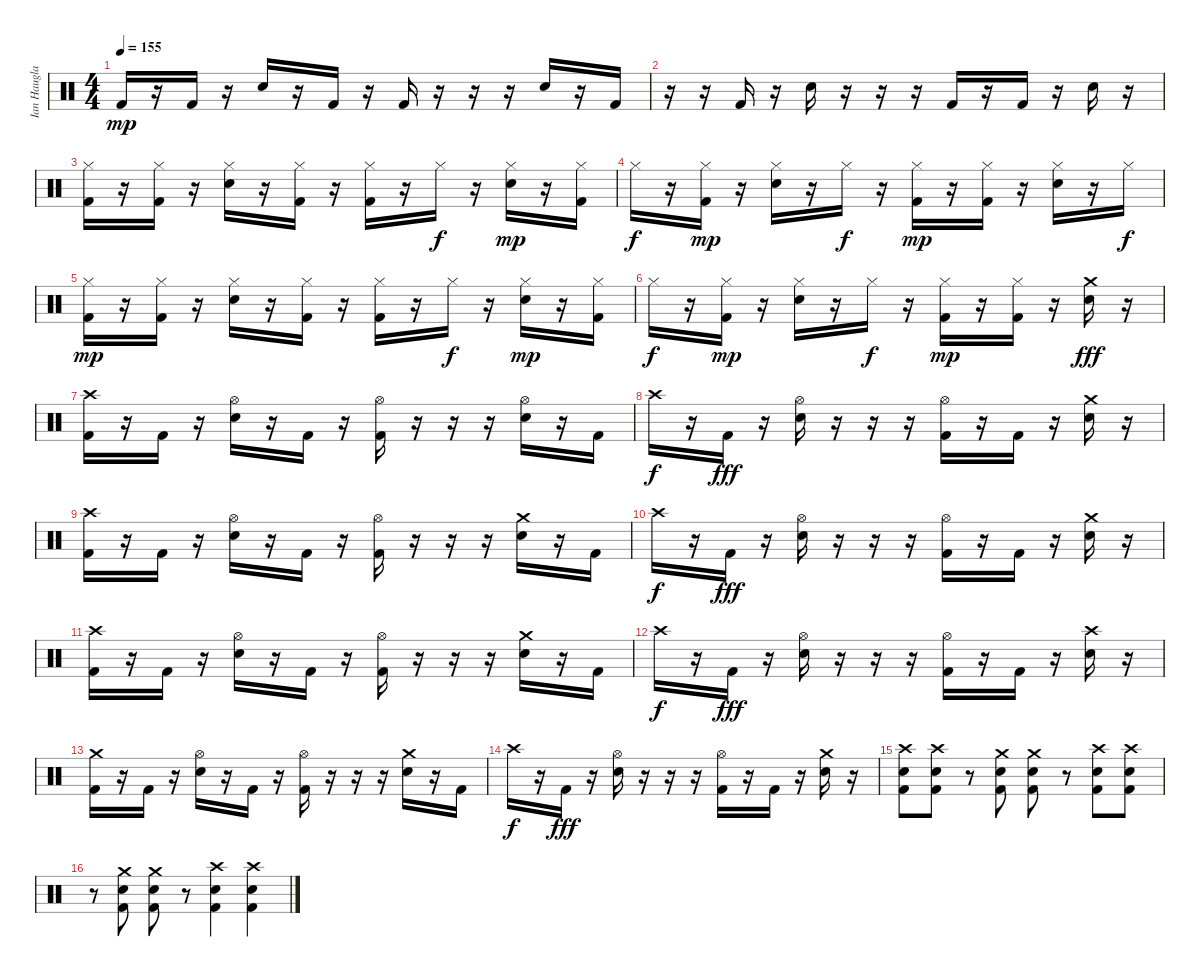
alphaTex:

\track ("Ian Haugland" "Ian Haugla") {instrument percussion}
\staff {score}
\articulation defaults
\ts (4 4)
\tempo 155
\clef neutral
\ks c "Kick (hit) 2".16{dy mp}
r.16 "Kick (hit) 2".16 r.16 "Electric Snare (hit)".16 r.16 "Kick (hit) 2".16 r.16 "Kick (hit) 2".16 r.16 r.16 r.16 "Electric Snare (hit)".16 r.16 "Kick (hit) 2".16 |
r.16 r.16 "Kick (hit) 2".16 r.16 "Electric Snare (hit)".16 r.16 r.16 r.16 "Kick (hit) 2".16 r.16 "Kick (hit) 2".16 r.16 "Electric Snare (hit)".16 r.16 |
("Hi-Hat (closed)" "Kick (hit) 2").16 r.16 ("Hi-Hat (closed)" "Kick (hit) 2").16 r.16 ("Hi-Hat (closed)" "Electric Snare (hit)").16 r.16 ("Hi-Hat (closed)" "Kick (hit) 2").16 r.16 ("Hi-Hat (closed)" "Kick (hit) 2").16 r.16 "Hi-Hat (closed)".16{dy f} r.16 ("Hi-Hat (closed)" "Electric Snare (hit)").16{dy mp} r.16 ("Hi-Hat (closed)" "Kick (hit) 2").16 |
"Hi-Hat (closed)".16{dy f} r.16 ("Hi-Hat (closed)" "Kick (hit) 2").16{dy mp} r.16 ("Hi-Hat (closed)" "Electric Snare (hit)").16 r.16 "Hi-Hat (closed)".16{dy f} r.16 ("Hi-Hat (closed)" "Kick (hit) 2").16{dy mp} r.16 ("Hi-Hat (closed)" "Kick (hit) 2").16 r.16 ("Hi-Hat (closed)" "Electric Snare (hit)").16 r.16 "Hi-Hat (closed)".16{dy f} |
("Hi-Hat (closed)" "Kick (hit) 2").16{dy mp} r.16 ("Hi-Hat (closed)" "Kick (hit) 2").16 r.16 ("Hi-Hat (closed)" "Electric Snare (hit)").16 r.16 ("Hi-Hat (closed)" "Kick (hit) 2").16 r.16 ("Hi-Hat (closed)" "Kick (hit) 2").16 r.16 "Hi-Hat (closed)".16{dy f} r.16 ("Hi-Hat (closed)" "Electric Snare (hit)").16{dy mp} r.16 ("Hi-Hat (closed)" "Kick (hit) 2").16 |
"Hi-Hat (closed)".16{dy f} r.16 ("Hi-Hat (closed)" "Kick (hit) 2").16{dy mp} r.16 ("Hi-Hat (closed)" "Electric Snare (hit)").16 r.16 "Hi-Hat (closed)".16{dy f} r.16 ("Hi-Hat (closed)" "Kick (hit) 2").16{dy mp} r.16 ("Hi-Hat (closed)" "Kick (hit) 2").16 r.16 ("Crash medium (hit)" "Electric Snare (hit)").16{dy fff} r.16 |
("Crash high (hit)" "Kick (hit) 2").16 r.16 "Kick (hit) 2".16 r.16 ("Hi-Hat (open)" "Electric Snare (hit)").16 r.16 "Kick (hit) 2".16 r.16 ("Hi-Hat (open)" "Kick (hit) 2").16 r.16 r.16 r.16 ("Hi-Hat (open)" "Electric Snare (hit)").16 r.16 "Kick (hit) 2".16 |
"Crash high (hit)".16{dy f} r.16 "Kick (hit) 2".16{dy fff} r.16 ("Hi-Hat (open)" "Electric Snare (hit)").16 r.16 r.16 r.16 ("Hi-Hat (open)" "Kick (hit) 2").16 r.16 "Kick (hit) 2".16 r.16 ("Crash medium (hit)" "Electric Snare (hit)").16 r.16 |
("Crash high (hit)" "Kick (hit) 2").16 r.16 "Kick (hit) 2".16 r.16 ("Hi-Hat (open)" "Electric Snare (hit)").16 r.16 "Kick (hit) 2".16 r.16 ("Hi-Hat (open)" "Kick (hit) 2").16 r.16 r.16 r.16 ("Crash medium (hit)" "Electric Snare (hit)").16 r.16 "Kick (hit) 2".16 |
"Crash high (hit)".16{dy f} r.16 "Kick (hit) 2".16{dy fff} r.16 ("Hi-Hat (open)" "Electric Snare (hit)").16 r.16 r.16 r.16 ("Hi-Hat (open)" "Kick (hit) 2").16 r.16 "Kick (hit) 2".16 r.16 ("Crash medium (hit)" "Electric Snare (hit)").16 r.16 |
("Crash high (hit)" "Kick (hit) 2").16 r.16 "Kick (hit) 2".16 r.16 ("Hi-Hat (open)" "Electric Snare (hit)").16 r.16 "Kick (hit) 2".16 r.16 ("Hi-Hat (open)" "Kick (hit) 2").16 r.16 r.16 r.16 ("Crash medium (hit)" "Electric Snare (hit)").16 r.16 "Kick (hit) 2".16 |
"Crash high (hit)".16{dy f} r.16 "Kick (hit) 2".16{dy fff} r.16 ("Hi-Hat (open)" "Electric Snare (hit)").16 r.16 r.16 r.16 ("Hi-Hat (open)" "Kick (hit) 2").16 r.16 "Kick (hit) 2".16 r.16 ("Crash high (hit)" "Electric Snare (hit)").16 r.16 |
("Crash medium (hit)" "Kick (hit) 2").16 r.16 "Kick (hit) 2".16 r.16 ("Hi-Hat (open)" "Electric Snare (hit)").16 r.16 "Kick (hit) 2".16 r.16 ("Hi-Hat (open)" "Kick (hit) 2").16 r.16 r.16 r.16 ("Crash medium (hit)" "Electric Snare (hit)").16 r.16 "Kick (hit) 2".16 |
"Crash high (hit)".16{dy f} r.16 "Kick (hit) 2".16{dy fff} r.16 ("Hi-Hat (open)" "Electric Snare (hit)").16 r.16 r.16 r.16 ("Hi-Hat (open)" "Kick (hit) 2").16 r.16 "Kick (hit) 2".16 r.16 ("Crash medium (hit)" "Electric Snare (hit)").16 r.16 |
("Crash high (hit)" "Electric Snare (hit)" "Kick (hit) 2").8 ("Crash high (hit)" "Electric Snare (hit)" "Kick (hit) 2").8 r.8 ("Crash medium (hit)" "Electric Snare (hit)" "Kick (hit) 2").8 ("Crash medium (hit)" "Electric Snare (hit)" "Kick (hit) 2").8 r.8 ("Crash high (hit)" "Electric Snare (hit)" "Kick (hit) 2").8 ("Crash high (hit)" "Electric Snare (hit)" "Kick (hit) 2").8 |
r.8 ("Crash medium (hit)" "Electric Snare (hit)" "Kick (hit) 2").8 ("Crash medium (hit)" "Electric Snare (hit)" "Kick (hit) 2").8 r.8 ("Crash high (hit)" "Electric Snare (hit)" "Kick (hit) 2").4 ("Crash high (hit)" "Electric Snare (hit)" "Kick (hit) 2").4
